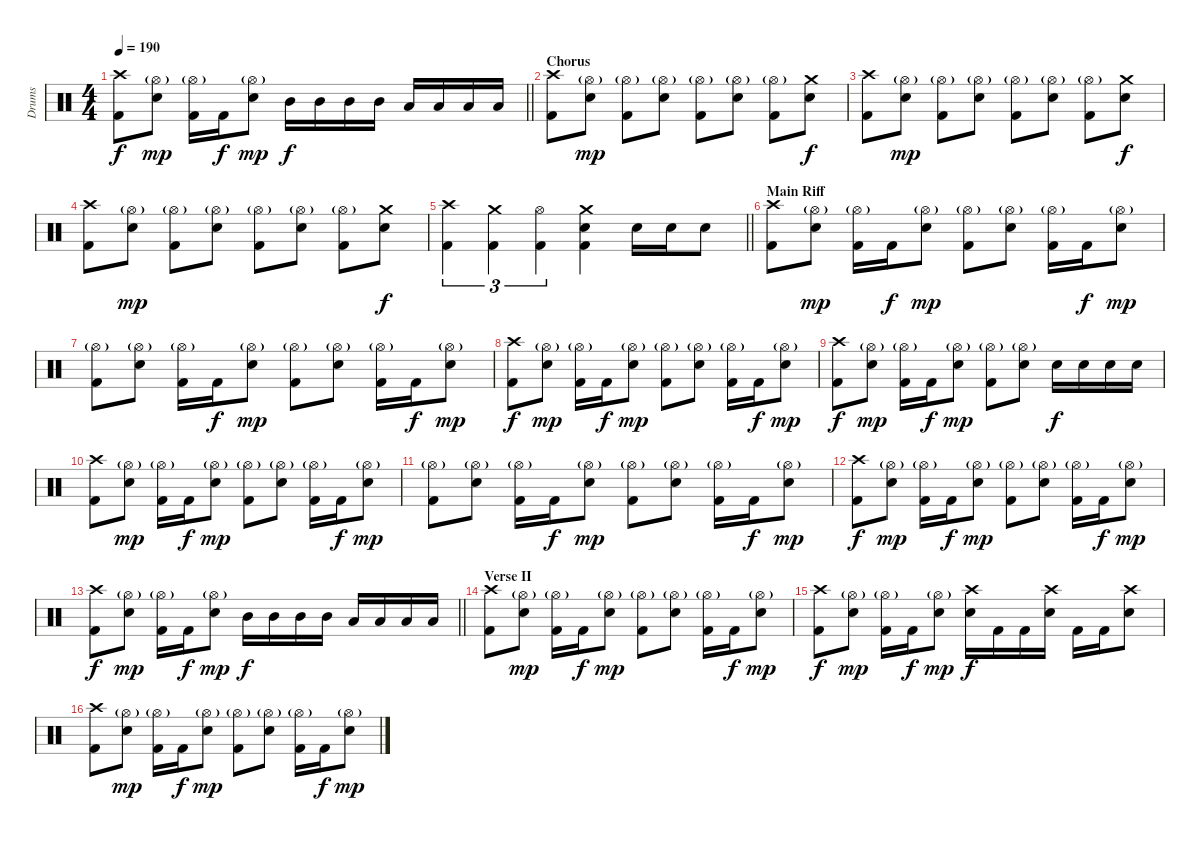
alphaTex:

\track ("Drums" "Drums") {instrument percussion}
\staff {score}
\articulation defaults
\ts (4 4)
\tempo 190
\clef neutral
\barLineRight lightlight
\ks c
("Crash high (hit)" "Kick (hit) 2").8{dy f} ("Hi-Hat (open)"{g} "Electric Snare (hit)").8{dy mp} ("Hi-Hat (open)"{g} "Kick (hit) 2").16 "Kick (hit) 2".16{dy f} ("Hi-Hat (open)"{g} "Electric Snare (hit)").8{dy mp} "Mid Tom (hit)".16{dy f} "Mid Tom (hit)".16 "Mid Tom (hit)".16 "Mid Tom (hit)".16 "Low Tom (hit)".16 "Low Tom (hit)".16 "Low Tom (hit)".16 "Low Tom (hit)".16 |
\section ("" "Chorus")
("Crash high (hit)" "Kick (hit) 2").8 ("Hi-Hat (open)"{g} "Electric Snare (hit)").8{dy mp} ("Hi-Hat (open)"{g} "Kick (hit) 2").8 ("Hi-Hat (open)"{g} "Electric Snare (hit)").8 ("Hi-Hat (open)"{g} "Kick (hit) 2").8 ("Hi-Hat (open)"{g} "Electric Snare (hit)").8 ("Hi-Hat (open)"{g} "Kick (hit) 2").8 ("Crash medium (hit)" "Electric Snare (hit)").8{dy f} |
("Crash high (hit)" "Kick (hit) 2").8 ("Hi-Hat (open)"{g} "Electric Snare (hit)").8{dy mp} ("Hi-Hat (open)"{g} "Kick (hit) 2").8 ("Hi-Hat (open)"{g} "Electric Snare (hit)").8 ("Hi-Hat (open)"{g} "Kick (hit) 2").8 ("Hi-Hat (open)"{g} "Electric Snare (hit)").8 ("Hi-Hat (open)"{g} "Kick (hit) 2").8 ("Crash medium (hit)" "Electric Snare (hit)").8{dy f} |
("Crash high (hit)" "Kick (hit) 2").8 ("Hi-Hat (open)"{g} "Electric Snare (hit)").8{dy mp} ("Hi-Hat (open)"{g} "Kick (hit) 2").8 ("Hi-Hat (open)"{g} "Electric Snare (hit)").8 ("Hi-Hat (open)"{g} "Kick (hit) 2").8 ("Hi-Hat (open)"{g} "Electric Snare (hit)").8 ("Hi-Hat (open)"{g} "Kick (hit) 2").8 ("Crash medium (hit)" "Electric Snare (hit)").8{dy f} |
\barLineRight lightlight
("Crash high (hit)" "Kick (hit) 2").4{tu (3 2)} ("Crash medium (hit)" "Kick (hit) 2").4{tu (3 2)} ("Hi-Hat (open)" "Kick (hit) 2").4{tu (3 2)} ("Crash medium (hit)" "Electric Snare (hit)" "Kick (hit) 2").4 "Electric Snare (hit)".16 "Electric Snare (hit)".16 "Electric Snare (hit)".8 |
\section ("" "Main Riff")
("Crash high (hit)" "Kick (hit) 2").8 ("Hi-Hat (open)"{g} "Electric Snare (hit)").8{dy mp} ("Hi-Hat (open)"{g} "Kick (hit) 2").16 "Kick (hit) 2".16{dy f} ("Hi-Hat (open)"{g} "Electric Snare (hit)").8{dy mp} ("Hi-Hat (open)"{g} "Kick (hit) 2").8 ("Hi-Hat (open)"{g} "Electric Snare (hit)").8 ("Hi-Hat (open)"{g} "Kick (hit) 2").16 "Kick (hit) 2".16{dy f} ("Hi-Hat (open)"{g} "Electric Snare (hit)").8{dy mp} |
("Hi-Hat (open)"{g} "Kick (hit) 2").8 ("Hi-Hat (open)"{g} "Electric Snare (hit)").8 ("Hi-Hat (open)"{g} "Kick (hit) 2").16 "Kick (hit) 2".16{dy f} ("Hi-Hat (open)"{g} "Electric Snare (hit)").8{dy mp} ("Hi-Hat (open)"{g} "Kick (hit) 2").8 ("Hi-Hat (open)"{g} "Electric Snare (hit)").8 ("Hi-Hat (open)"{g} "Kick (hit) 2").16 "Kick (hit) 2".16{dy f} ("Hi-Hat (open)"{g} "Electric Snare (hit)").8{dy mp} |
("Crash high (hit)" "Kick (hit) 2").8{dy f} ("Hi-Hat (open)"{g} "Electric Snare (hit)").8{dy mp} ("Hi-Hat (open)"{g} "Kick (hit) 2").16 "Kick (hit) 2".16{dy f} ("Hi-Hat (open)"{g} "Electric Snare (hit)").8{dy mp} ("Hi-Hat (open)"{g} "Kick (hit) 2").8 ("Hi-Hat (open)"{g} "Electric Snare (hit)").8 ("Hi-Hat (open)"{g} "Kick (hit) 2").16 "Kick (hit) 2".16{dy f} ("Hi-Hat (open)"{g} "Electric Snare (hit)").8{dy mp} |
("Crash high (hit)" "Kick (hit) 2").8{dy f} ("Hi-Hat (open)"{g} "Electric Snare (hit)").8{dy mp} ("Hi-Hat (open)"{g} "Kick (hit) 2").16 "Kick (hit) 2".16{dy f} ("Hi-Hat (open)"{g} "Electric Snare (hit)").8{dy mp} ("Hi-Hat (open)"{g} "Kick (hit) 2").8 ("Hi-Hat (open)"{g} "Electric Snare (hit)").8 "Electric Snare (hit)".16{dy f} "Electric Snare (hit)".16 "Electric Snare (hit)".16 "Electric Snare (hit)".16 |
("Crash high (hit)" "Kick (hit) 2").8 ("Hi-Hat (open)"{g} "Electric Snare (hit)").8{dy mp} ("Hi-Hat (open)"{g} "Kick (hit) 2").16 "Kick (hit) 2".16{dy f} ("Hi-Hat (open)"{g} "Electric Snare (hit)").8{dy mp} ("Hi-Hat (open)"{g} "Kick (hit) 2").8 ("Hi-Hat (open)"{g} "Electric Snare (hit)").8 ("Hi-Hat (open)"{g} "Kick (hit) 2").16 "Kick (hit) 2".16{dy f} ("Hi-Hat (open)"{g} "Electric Snare (hit)").8{dy mp} |
("Hi-Hat (open)"{g} "Kick (hit) 2").8 ("Hi-Hat (open)"{g} "Electric Snare (hit)").8 ("Hi-Hat (open)"{g} "Kick (hit) 2").16 "Kick (hit) 2".16{dy f} ("Hi-Hat (open)"{g} "Electric Snare (hit)").8{dy mp} ("Hi-Hat (open)"{g} "Kick (hit) 2").8 ("Hi-Hat (open)"{g} "Electric Snare (hit)").8 ("Hi-Hat (open)"{g} "Kick (hit) 2").16 "Kick (hit) 2".16{dy f} ("Hi-Hat (open)"{g} "Electric Snare (hit)").8{dy mp} |
("Crash high (hit)" "Kick (hit) 2").8{dy f} ("Hi-Hat (open)"{g} "Electric Snare (hit)").8{dy mp} ("Hi-Hat (open)"{g} "Kick (hit) 2").16 "Kick (hit) 2".16{dy f} ("Hi-Hat (open)"{g} "Electric Snare (hit)").8{dy mp} ("Hi-Hat (open)"{g} "Kick (hit) 2").8 ("Hi-Hat (open)"{g} "Electric Snare (hit)").8 ("Hi-Hat (open)"{g} "Kick (hit) 2").16 "Kick (hit) 2".16{dy f} ("Hi-Hat (open)"{g} "Electric Snare (hit)").8{dy mp} |
\barLineRight lightlight
("Crash high (hit)" "Kick (hit) 2").8{dy f} ("Hi-Hat (open)"{g} "Electric Snare (hit)").8{dy mp} ("Hi-Hat (open)"{g} "Kick (hit) 2").16 "Kick (hit) 2".16{dy f} ("Hi-Hat (open)"{g} "Electric Snare (hit)").8{dy mp} "Mid Tom (hit)".16{dy f} "Mid Tom (hit)".16 "Mid Tom (hit)".16 "Mid Tom (hit)".16 "Low Tom (hit)".16 "Low Tom (hit)".16 "Low Tom (hit)".16 "Low Tom (hit)".16 |
\section ("" "Verse II")
("Crash high (hit)" "Kick (hit) 2").8 ("Hi-Hat (open)"{g} "Electric Snare (hit)").8{dy mp} ("Hi-Hat (open)"{g} "Kick (hit) 2").16 "Kick (hit) 2".16{dy f} ("Hi-Hat (open)"{g} "Electric Snare (hit)").8{dy mp} ("Hi-Hat (open)"{g} "Kick (hit) 2").8 ("Hi-Hat (open)"{g} "Electric Snare (hit)").8 ("Hi-Hat (open)"{g} "Kick (hit) 2").16 "Kick (hit) 2".16{dy f} ("Hi-Hat (open)"{g} "Electric Snare (hit)").8{dy mp} |
("Crash high (hit)" "Kick (hit) 2").8{dy f} ("Hi-Hat (open)"{g} "Electric Snare (hit)").8{dy mp} ("Hi-Hat (open)"{g} "Kick (hit) 2").16 "Kick (hit) 2".16{dy f} ("Hi-Hat (open)"{g} "Electric Snare (hit)").8{dy mp} ("Crash high (hit)" "Electric Snare (hit)").16{dy f} "Kick (hit) 2".16 "Kick (hit) 2".16 ("Crash high (hit)" "Electric Snare (hit)").16 "Kick (hit) 2".16 "Kick (hit) 2".16 ("Crash high (hit)" "Electric Snare (hit)").8 |
("Crash high (hit)" "Kick (hit) 2").8 ("Hi-Hat (open)"{g} "Electric Snare (hit)").8{dy mp} ("Hi-Hat (open)"{g} "Kick (hit) 2").16 "Kick (hit) 2".16{dy f} ("Hi-Hat (open)"{g} "Electric Snare (hit)").8{dy mp} ("Hi-Hat (open)"{g} "Kick (hit) 2").8 ("Hi-Hat (open)"{g} "Electric Snare (hit)").8 ("Hi-Hat (open)"{g} "Kick (hit) 2").16 "Kick (hit) 2".16{dy f} ("Hi-Hat (open)"{g} "Electric Snare (hit)").8{dy mp}
